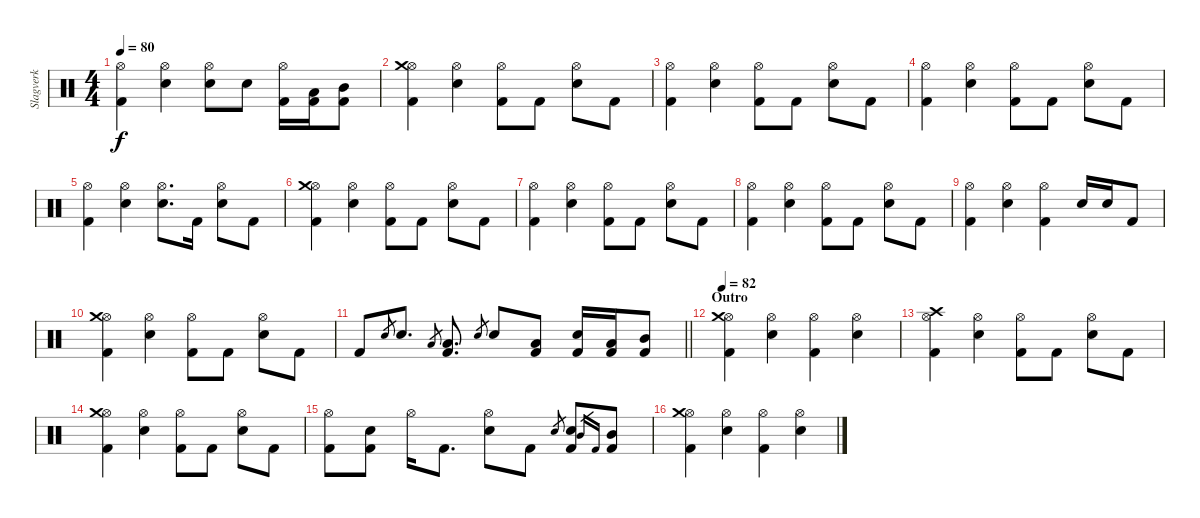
\track ("Slagverk" "Slagverk") {instrument percussion}
\staff {score}
\articulation defaults
\ts (4 4)
\tempo 80
\clef neutral
\ks c
("Hi-Hat (open)" "Kick (hit) 2").4{dy f} ("Electric Snare (hit)" "Hi-Hat (open)").4 ("Electric Snare (hit)" "Hi-Hat (open)").8 "Electric Snare (hit)".8 ("Hi-Hat (open)" "Kick (hit) 2").16 ("Low Tom (hit)" "Kick (hit) 2").16 ("Mid Tom (hit)" "Kick (hit) 2").8 |
("Hi-Hat (open)" "Kick (hit) 2" "Crash medium (hit)").4 ("Electric Snare (hit)" "Hi-Hat (open)").4 ("Hi-Hat (open)" "Kick (hit) 2").8 "Kick (hit) 2".8 ("Electric Snare (hit)" "Hi-Hat (open)").8 "Kick (hit) 2".8 |
("Hi-Hat (open)" "Kick (hit) 2").4 ("Electric Snare (hit)" "Hi-Hat (open)").4 ("Hi-Hat (open)" "Kick (hit) 2").8 "Kick (hit) 2".8 ("Electric Snare (hit)" "Hi-Hat (open)").8 "Kick (hit) 2".8 |
("Hi-Hat (open)" "Kick (hit) 2").4 ("Electric Snare (hit)" "Hi-Hat (open)").4 ("Hi-Hat (open)" "Kick (hit) 2").8 "Kick (hit) 2".8 ("Electric Snare (hit)" "Hi-Hat (open)").8 "Kick (hit) 2".8 |
("Hi-Hat (open)" "Kick (hit) 2").4 ("Electric Snare (hit)" "Hi-Hat (open)").4 ("Electric Snare (hit)" "Hi-Hat (open)").8{d} "Kick (hit) 2".16 ("Electric Snare (hit)" "Hi-Hat (open)").8 "Kick (hit) 2".8 |
("Hi-Hat (open)" "Kick (hit) 2" "Crash medium (hit)").4 ("Electric Snare (hit)" "Hi-Hat (open)").4 ("Hi-Hat (open)" "Kick (hit) 2").8 "Kick (hit) 2".8 ("Electric Snare (hit)" "Hi-Hat (open)").8 "Kick (hit) 2".8 |
("Hi-Hat (open)" "Kick (hit) 2").4 ("Electric Snare (hit)" "Hi-Hat (open)").4 ("Hi-Hat (open)" "Kick (hit) 2").8 "Kick (hit) 2".8 ("Electric Snare (hit)" "Hi-Hat (open)").8 "Kick (hit) 2".8 |
("Hi-Hat (open)" "Kick (hit) 2").4 ("Electric Snare (hit)" "Hi-Hat (open)").4 ("Hi-Hat (open)" "Kick (hit) 2").8 "Kick (hit) 2".8 ("Electric Snare (hit)" "Hi-Hat (open)").8 "Kick (hit) 2".8 |
("Hi-Hat (open)" "Kick (hit) 2").4 ("Electric Snare (hit)" "Hi-Hat (open)").4 ("Hi-Hat (open)" "Kick (hit) 2").4 "Electric Snare (hit)".16 "Electric Snare (hit)".16 "Kick (hit) 2".8 |
("Hi-Hat (open)" "Kick (hit) 2" "Crash medium (hit)").4 ("Electric Snare (hit)" "Hi-Hat (open)").4 ("Hi-Hat (open)" "Kick (hit) 2").8 "Kick (hit) 2".8 ("Electric Snare (hit)" "Hi-Hat (open)").8 "Kick (hit) 2".8 |
\barLineRight lightlight "Kick (hit) 2".8 "Electric Snare (hit)".8{gr} "Electric Snare (hit)".8{d} "Low Tom (hit)".8{gr}
("Low Tom (hit)" "Kick (hit) 2").8{d} "Electric Snare (hit)".8{gr} "Electric Snare (hit)".8 ("Low Tom (hit)" "Kick (hit) 2").8 ("Electric Snare (hit)" "Kick (hit) 2").16 ("Low Tom (hit)" "Kick (hit) 2").16 ("Mid Tom (hit)" "Kick (hit) 2").8 |
\section ("" "Outro")
\tempo 82
("Hi-Hat (open)" "Kick (hit) 2" "Crash medium (hit)").4 ("Electric Snare (hit)" "Hi-Hat (open)").4 ("Hi-Hat (open)" "Kick (hit) 2").4 ("Electric Snare (hit)" "Hi-Hat (open)").4 |
("Hi-Hat (open)" "Kick (hit) 2" "Crash high (hit)").4 ("Electric Snare (hit)" "Hi-Hat (open)").4 ("Hi-Hat (open)" "Kick (hit) 2").8 "Kick (hit) 2".8 ("Electric Snare (hit)" "Hi-Hat (open)").8 "Kick (hit) 2".8 |
("Hi-Hat (open)" "Kick (hit) 2" "Crash medium (hit)").4 ("Electric Snare (hit)" "Hi-Hat (open)").4 ("Hi-Hat (open)" "Kick (hit) 2").8 "Kick (hit) 2".8 ("Electric Snare (hit)" "Hi-Hat (open)").8 "Kick (hit) 2".8 |
("Hi-Hat (open)" "Kick (hit) 2").8 ("Electric Snare (hit)" "Kick (hit) 2").8 "Hi-Hat (open)".16 "Kick (hit) 2".8{d} ("Electric Snare (hit)" "Hi-Hat (open)").8 "Kick (hit) 2".8 "Electric Snare (hit)".8{gr} ("Electric Snare (hit)" "Kick (hit) 2").8 "Mid Tom (hit)".16{gr} "Kick (hit) 2".16{gr} ("Mid Tom (hit)" "Kick (hit) 2").8 |
("Hi-Hat (open)" "Kick (hit) 2" "Crash medium (hit)").4 ("Electric Snare (hit)" "Hi-Hat (open)").4 ("Hi-Hat (open)" "Kick (hit) 2").4 ("Electric Snare (hit)" "Hi-Hat (open)").4
